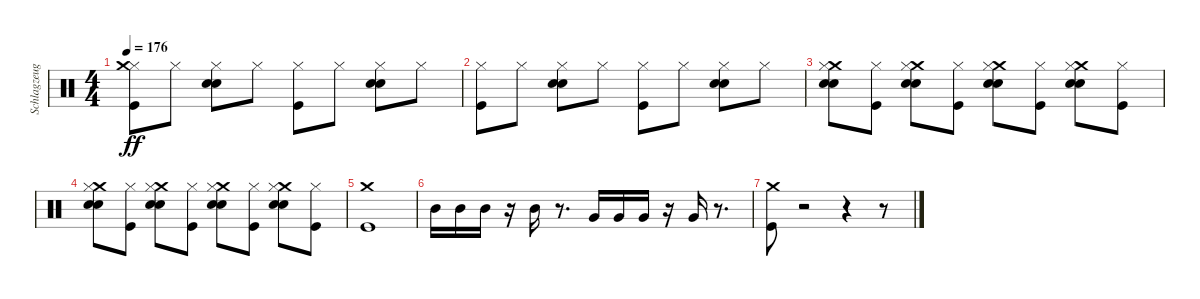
\track ("Schlagzeug - Bela B." "Schlagzeug") {instrument percussion}
\staff {score}
\articulation defaults
\ts (4 4)
\tempo 176
\clef neutral
\ks c
("Kick (hit)" "Hi-Hat (closed)" "Crash medium (hit)").8{dy ff} "Hi-Hat (closed)".8 ("Hi-Hat (closed)" "Hand Clap (hit)" "Electric Snare (hit)").8 "Hi-Hat (closed)".8 ("Hi-Hat (closed)" "Kick (hit)").8 "Hi-Hat (closed)".8 ("Hi-Hat (closed)" "Hand Clap (hit)" "Electric Snare (hit)").8 "Hi-Hat (closed)".8 |
("Kick (hit)" "Hi-Hat (closed)").8 "Hi-Hat (closed)".8 ("Hi-Hat (closed)" "Hand Clap (hit)" "Electric Snare (hit)").8 "Hi-Hat (closed)".8 ("Hi-Hat (closed)" "Kick (hit)").8 "Hi-Hat (closed)".8 ("Hi-Hat (closed)" "Hand Clap (hit)" "Electric Snare (hit)").8 "Hi-Hat (closed)".8 |
("Hand Clap (hit)" "Electric Snare (hit)" "Crash medium (hit)" "Hi-Hat (closed)").8 ("Kick (hit)" "Hi-Hat (closed)").8 ("Hand Clap (hit)" "Electric Snare (hit)" "Crash medium (hit)" "Hi-Hat (closed)").8 ("Kick (hit)" "Hi-Hat (closed)").8 ("Hand Clap (hit)" "Electric Snare (hit)" "Crash medium (hit)" "Hi-Hat (closed)").8 ("Kick (hit)" "Hi-Hat (closed)").8 ("Hand Clap (hit)" "Electric Snare (hit)" "Crash medium (hit)" "Hi-Hat (closed)").8 ("Kick (hit)" "Hi-Hat (closed)").8 |
("Hand Clap (hit)" "Electric Snare (hit)" "Crash medium (hit)" "Hi-Hat (closed)").8 ("Kick (hit)" "Hi-Hat (closed)").8 ("Hand Clap (hit)" "Electric Snare (hit)" "Crash medium (hit)" "Hi-Hat (closed)").8 ("Kick (hit)" "Hi-Hat (closed)").8 ("Hand Clap (hit)" "Electric Snare (hit)" "Crash medium (hit)" "Hi-Hat (closed)").8 ("Kick (hit)" "Hi-Hat (closed)").8 ("Hand Clap (hit)" "Electric Snare (hit)" "Crash medium (hit)" "Hi-Hat (closed)").8 ("Kick (hit)" "Hi-Hat (closed)").8 |
("Kick (hit)" "Crash medium (hit)").1 |
"Mid Tom (hit)".16 "Mid Tom (hit)".16 "Mid Tom (hit)".16 r.16 "Mid Tom (hit)".16 r.8{d} "Very Low Tom (hit)".16 "Very Low Tom (hit)".16 "Very Low Tom (hit)".16 r.16 "Very Low Tom (hit)".16 r.8{d} |
("Kick (hit)" "Crash medium (hit)").8 r.2 r.4 r.8
